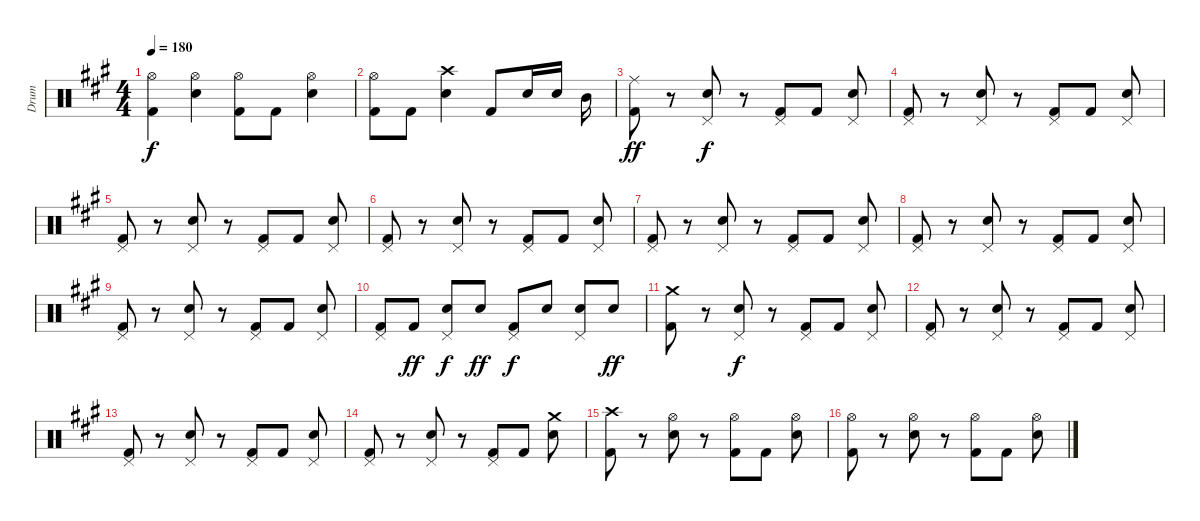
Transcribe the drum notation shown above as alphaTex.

\track ("Drum" "Drum") {instrument percussion}
\staff {score}
\articulation defaults
\ts (4 4)
\tempo 180
\clef neutral
\ks a
("Hi-Hat (open)" "Kick (hit) 2").4{dy f} ("Hi-Hat (open)" "Snare (hit) 2").4 ("Hi-Hat (open)" "Kick (hit) 2").8 "Kick (hit) 2".8 ("Hi-Hat (open)" "Snare (hit) 2").4 |
("Hi-Hat (open)" "Kick (hit) 2").8 "Kick (hit) 2".8 ("Crash high (hit)" "Snare (hit) 2").4 "Kick (hit) 2".8 "Snare (hit) 2".16 "Snare (hit) 2".16 "Mid Tom (hit)".16 |
("Ride (middle)" "Kick (hit) 2").8{dy ff} r.8 ("Pedal Hi-Hat (hit)" "Snare (hit) 2").8{dy f} r.8 ("Pedal Hi-Hat (hit)" "Kick (hit) 2").8 "Kick (hit) 2".8 ("Pedal Hi-Hat (hit)" "Snare (hit) 2").8 |
("Pedal Hi-Hat (hit)" "Kick (hit) 2").8 r.8 ("Pedal Hi-Hat (hit)" "Snare (hit) 2").8 r.8 ("Pedal Hi-Hat (hit)" "Kick (hit) 2").8 "Kick (hit) 2".8 ("Pedal Hi-Hat (hit)" "Snare (hit) 2").8 |
("Pedal Hi-Hat (hit)" "Kick (hit) 2").8 r.8 ("Pedal Hi-Hat (hit)" "Snare (hit) 2").8 r.8 ("Pedal Hi-Hat (hit)" "Kick (hit) 2").8 "Kick (hit) 2".8 ("Pedal Hi-Hat (hit)" "Snare (hit) 2").8 |
("Pedal Hi-Hat (hit)" "Kick (hit) 2").8 r.8 ("Pedal Hi-Hat (hit)" "Snare (hit) 2").8 r.8 ("Pedal Hi-Hat (hit)" "Kick (hit) 2").8 "Kick (hit) 2".8 ("Pedal Hi-Hat (hit)" "Snare (hit) 2").8 |
("Pedal Hi-Hat (hit)" "Kick (hit) 2").8 r.8 ("Pedal Hi-Hat (hit)" "Snare (hit) 2").8 r.8 ("Pedal Hi-Hat (hit)" "Kick (hit) 2").8 "Kick (hit) 2".8 ("Pedal Hi-Hat (hit)" "Snare (hit) 2").8 |
("Pedal Hi-Hat (hit)" "Kick (hit) 2").8 r.8 ("Pedal Hi-Hat (hit)" "Snare (hit) 2").8 r.8 ("Pedal Hi-Hat (hit)" "Kick (hit) 2").8 "Kick (hit) 2".8 ("Pedal Hi-Hat (hit)" "Snare (hit) 2").8 |
("Pedal Hi-Hat (hit)" "Kick (hit) 2").8 r.8 ("Pedal Hi-Hat (hit)" "Snare (hit) 2").8 r.8 ("Pedal Hi-Hat (hit)" "Kick (hit) 2").8 "Kick (hit) 2".8 ("Pedal Hi-Hat (hit)" "Snare (hit) 2").8 |
("Pedal Hi-Hat (hit)" "Kick (hit) 2").8 "Kick (hit) 2".8{dy ff} ("Pedal Hi-Hat (hit)" "Snare (hit) 2").8{dy f} "Snare (hit) 2".8{dy ff} ("Pedal Hi-Hat (hit)" "Kick (hit) 2").8{dy f} "Snare (hit) 2".8 ("Pedal Hi-Hat (hit)" "Snare (hit) 2").8 "Snare (hit) 2".8{dy ff} |
("Crash medium (hit)" "Kick (hit) 2").8 r.8 ("Pedal Hi-Hat (hit)" "Snare (hit) 2").8{dy f} r.8 ("Pedal Hi-Hat (hit)" "Kick (hit) 2").8 "Kick (hit) 2".8 ("Pedal Hi-Hat (hit)" "Snare (hit) 2").8 |
("Pedal Hi-Hat (hit)" "Kick (hit) 2").8 r.8 ("Pedal Hi-Hat (hit)" "Snare (hit) 2").8 r.8 ("Pedal Hi-Hat (hit)" "Kick (hit) 2").8 "Kick (hit) 2".8 ("Pedal Hi-Hat (hit)" "Snare (hit) 2").8 |
("Pedal Hi-Hat (hit)" "Kick (hit) 2").8 r.8 ("Pedal Hi-Hat (hit)" "Snare (hit) 2").8 r.8 ("Pedal Hi-Hat (hit)" "Kick (hit) 2").8 "Kick (hit) 2".8 ("Pedal Hi-Hat (hit)" "Snare (hit) 2").8 |
("Pedal Hi-Hat (hit)" "Kick (hit) 2").8 r.8 ("Pedal Hi-Hat (hit)" "Snare (hit) 2").8 r.8 ("Pedal Hi-Hat (hit)" "Kick (hit) 2").8 "Kick (hit) 2".8 ("Crash medium (hit)" "Snare (hit) 2").8 |
("Crash high (hit)" "Kick (hit) 2").8 r.8 ("Hi-Hat (open)" "Snare (hit) 2").8 r.8 ("Hi-Hat (open)" "Kick (hit) 2").8 "Kick (hit) 2".8 ("Hi-Hat (open)" "Snare (hit) 2").8 |
("Hi-Hat (open)" "Kick (hit) 2").8 r.8 ("Hi-Hat (open)" "Snare (hit) 2").8 r.8 ("Hi-Hat (open)" "Kick (hit) 2").8 "Kick (hit) 2".8 ("Hi-Hat (open)" "Snare (hit) 2").8
